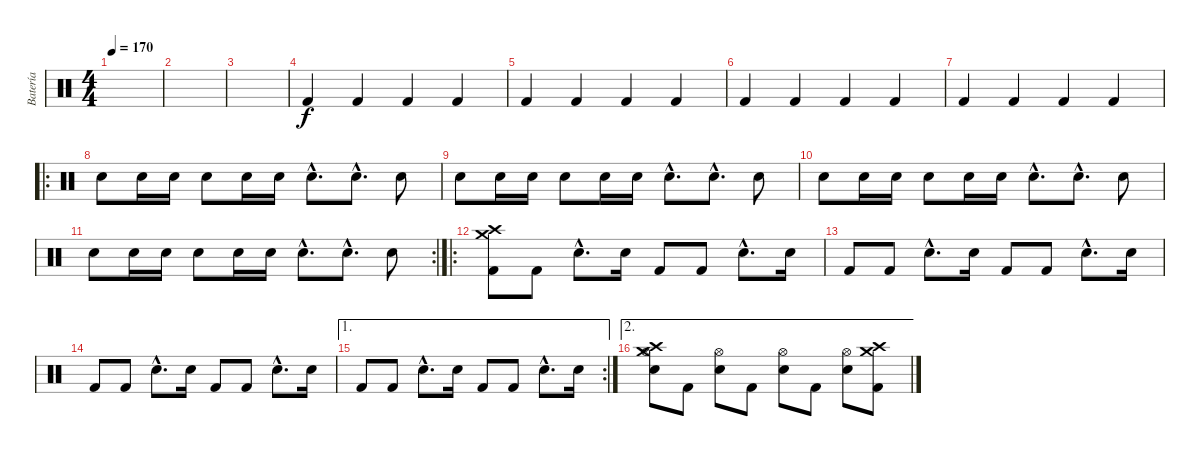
\track ("Batería" "Batería") {instrument percussion}
\staff {score}
\articulation defaults
\ts (4 4)
\tempo 170
\clef neutral
\ks c
|
|
|
"Kick (hit) 2".4 "Kick (hit) 2".4 "Kick (hit) 2".4 "Kick (hit) 2".4 |
"Kick (hit) 2".4 "Kick (hit) 2".4 "Kick (hit) 2".4 "Kick (hit) 2".4 |
"Kick (hit) 2".4 "Kick (hit) 2".4 "Kick (hit) 2".4 "Kick (hit) 2".4 |
"Kick (hit) 2".4 "Kick (hit) 2".4 "Kick (hit) 2".4 "Kick (hit) 2".4 |
\ro "Electric Snare (hit)".8 "Electric Snare (hit)".16 "Electric Snare (hit)".16 "Electric Snare (hit)".8 "Electric Snare (hit)".16 "Electric Snare (hit)".16 "Electric Snare (hit)"{hac}.8{d} "Electric Snare (hit)"{hac}.8{d} "Electric Snare (hit)".8
|
"Electric Snare (hit)".8 "Electric Snare (hit)".16 "Electric Snare (hit)".16 "Electric Snare (hit)".8 "Electric Snare (hit)".16 "Electric Snare (hit)".16 "Electric Snare (hit)"{hac}.8{d} "Electric Snare (hit)"{hac}.8{d} "Electric Snare (hit)".8 |
"Electric Snare (hit)".8 "Electric Snare (hit)".16 "Electric Snare (hit)".16 "Electric Snare (hit)".8 "Electric Snare (hit)".16 "Electric Snare (hit)".16 "Electric Snare (hit)"{hac}.8{d} "Electric Snare (hit)"{hac}.8{d} "Electric Snare (hit)".8 |
\rc 2 "Electric Snare (hit)".8 "Electric Snare (hit)".16 "Electric Snare (hit)".16 "Electric Snare (hit)".8 "Electric Snare (hit)".16 "Electric Snare (hit)".16 "Electric Snare (hit)"{hac}.8{d} "Electric Snare (hit)"{hac}.8{d} "Electric Snare (hit)".8
|
\ro
("Crash high (hit)" "Crash medium (hit)" "Kick (hit) 2").8 "Kick (hit) 2".8 "Snare (hit) 2"{hac}.8{d} "Snare (hit) 2".16 "Kick (hit) 2".8 "Kick (hit) 2".8 "Snare (hit) 2"{hac}.8{d} "Snare (hit) 2".16 |
"Kick (hit) 2".8 "Kick (hit) 2".8 "Snare (hit) 2"{hac}.8{d} "Snare (hit) 2".16 "Kick (hit) 2".8 "Kick (hit) 2".8 "Snare (hit) 2"{hac}.8{d} "Snare (hit) 2".16 |
"Kick (hit) 2".8 "Kick (hit) 2".8 "Snare (hit) 2"{hac}.8{d} "Snare (hit) 2".16 "Kick (hit) 2".8 "Kick (hit) 2".8 "Snare (hit) 2"{hac}.8{d} "Snare (hit) 2".16 |
\ae 1
\rc 2 "Kick (hit) 2".8 "Kick (hit) 2".8 "Snare (hit) 2"{hac}.8{d} "Snare (hit) 2".16 "Kick (hit) 2".8 "Kick (hit) 2".8 "Snare (hit) 2"{hac}.8{d} "Snare (hit) 2".16
|
\ae 2
("Crash high (hit)" "Crash medium (hit)" "Snare (hit) 2" "Hi-Hat (open)").8 "Kick (hit) 2".8 ("Snare (hit) 2" "Hi-Hat (open)").8 "Kick (hit) 2".8 ("Snare (hit) 2" "Hi-Hat (open)").8 "Kick (hit) 2".8 ("Snare (hit) 2" "Hi-Hat (open)").8 ("Crash high (hit)" "Crash medium (hit)" "Kick (hit) 2").8
